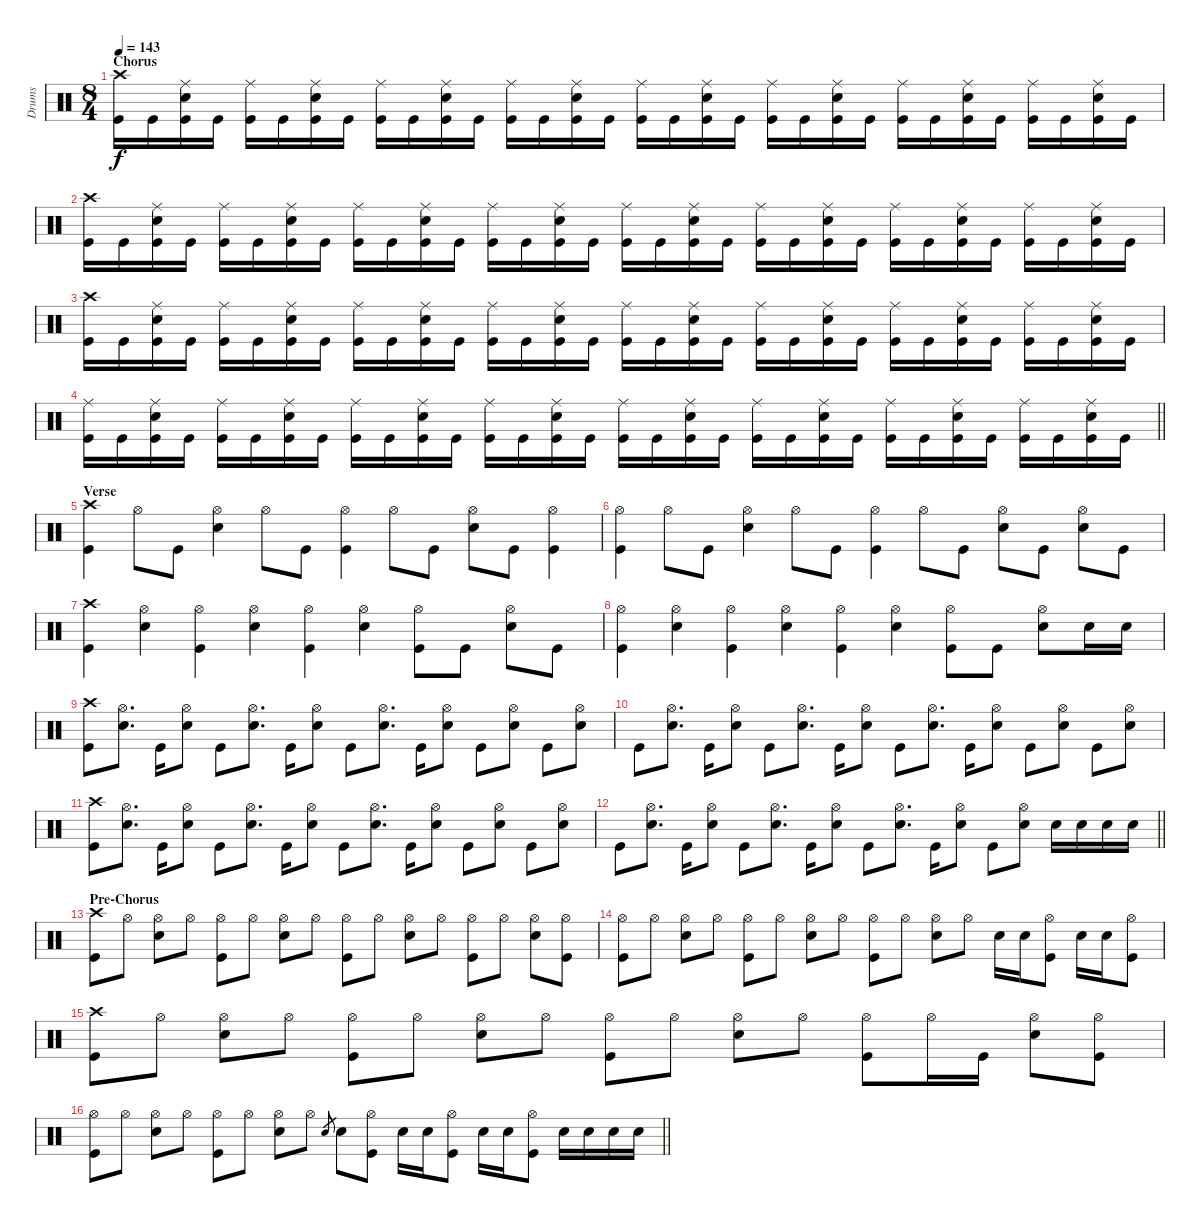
\track ("Drums" "Drums") {instrument percussion}
\staff {score}
\articulation defaults
\ts (8 4)
\section ("" "Chorus")
\tempo 143
\clef neutral
\ks c
("Crash high (hit)" "Kick (hit)").16{dy f} "Kick (hit)".16 ("Ride (middle)" "Snare (hit) 2" "Kick (hit)").16 "Kick (hit)".16 ("Ride (middle)" "Kick (hit)").16 "Kick (hit)".16 ("Ride (middle)" "Snare (hit) 2" "Kick (hit)").16 "Kick (hit)".16 ("Ride (middle)" "Kick (hit)").16 "Kick (hit)".16 ("Ride (middle)" "Snare (hit) 2" "Kick (hit)").16 "Kick (hit)".16 ("Ride (middle)" "Kick (hit)").16 "Kick (hit)".16 ("Ride (middle)" "Snare (hit) 2" "Kick (hit)").16 "Kick (hit)".16 ("Ride (middle)" "Kick (hit)").16 "Kick (hit)".16 ("Ride (middle)" "Snare (hit) 2" "Kick (hit)").16 "Kick (hit)".16 ("Ride (middle)" "Kick (hit)").16 "Kick (hit)".16 ("Ride (middle)" "Snare (hit) 2" "Kick (hit)").16 "Kick (hit)".16 ("Ride (middle)" "Kick (hit)").16 "Kick (hit)".16 ("Ride (middle)" "Snare (hit) 2" "Kick (hit)").16 "Kick (hit)".16 ("Ride (middle)" "Kick (hit)").16 "Kick (hit)".16 ("Ride (middle)" "Snare (hit) 2" "Kick (hit)").16 "Kick (hit)".16 |
("Crash high (hit)" "Kick (hit)").16 "Kick (hit)".16 ("Ride (middle)" "Snare (hit) 2" "Kick (hit)").16 "Kick (hit)".16 ("Ride (middle)" "Kick (hit)").16 "Kick (hit)".16 ("Ride (middle)" "Snare (hit) 2" "Kick (hit)").16 "Kick (hit)".16 ("Ride (middle)" "Kick (hit)").16 "Kick (hit)".16 ("Ride (middle)" "Snare (hit) 2" "Kick (hit)").16 "Kick (hit)".16 ("Ride (middle)" "Kick (hit)").16 "Kick (hit)".16 ("Ride (middle)" "Snare (hit) 2" "Kick (hit)").16 "Kick (hit)".16 ("Ride (middle)" "Kick (hit)").16 "Kick (hit)".16 ("Ride (middle)" "Snare (hit) 2" "Kick (hit)").16 "Kick (hit)".16 ("Ride (middle)" "Kick (hit)").16 "Kick (hit)".16 ("Ride (middle)" "Snare (hit) 2" "Kick (hit)").16 "Kick (hit)".16 ("Ride (middle)" "Kick (hit)").16 "Kick (hit)".16 ("Ride (middle)" "Snare (hit) 2" "Kick (hit)").16 "Kick (hit)".16 ("Ride (middle)" "Kick (hit)").16 "Kick (hit)".16 ("Ride (middle)" "Snare (hit) 2" "Kick (hit)").16 "Kick (hit)".16 |
("Crash high (hit)" "Kick (hit)").16 "Kick (hit)".16 ("Ride (middle)" "Snare (hit) 2" "Kick (hit)").16 "Kick (hit)".16 ("Ride (middle)" "Kick (hit)").16 "Kick (hit)".16 ("Ride (middle)" "Snare (hit) 2" "Kick (hit)").16 "Kick (hit)".16 ("Ride (middle)" "Kick (hit)").16 "Kick (hit)".16 ("Ride (middle)" "Snare (hit) 2" "Kick (hit)").16 "Kick (hit)".16 ("Ride (middle)" "Kick (hit)").16 "Kick (hit)".16 ("Ride (middle)" "Snare (hit) 2" "Kick (hit)").16 "Kick (hit)".16 ("Ride (middle)" "Kick (hit)").16 "Kick (hit)".16 ("Ride (middle)" "Snare (hit) 2" "Kick (hit)").16 "Kick (hit)".16 ("Ride (middle)" "Kick (hit)").16 "Kick (hit)".16 ("Ride (middle)" "Snare (hit) 2" "Kick (hit)").16 "Kick (hit)".16 ("Ride (middle)" "Kick (hit)").16 "Kick (hit)".16 ("Ride (middle)" "Snare (hit) 2" "Kick (hit)").16 "Kick (hit)".16 ("Ride (middle)" "Kick (hit)").16 "Kick (hit)".16 ("Ride (middle)" "Snare (hit) 2" "Kick (hit)").16 "Kick (hit)".16 |
\barLineRight lightlight
("Ride (middle)" "Kick (hit)").16 "Kick (hit)".16 ("Ride (middle)" "Snare (hit) 2" "Kick (hit)").16 "Kick (hit)".16 ("Ride (middle)" "Kick (hit)").16 "Kick (hit)".16 ("Ride (middle)" "Snare (hit) 2" "Kick (hit)").16 "Kick (hit)".16 ("Ride (middle)" "Kick (hit)").16 "Kick (hit)".16 ("Ride (middle)" "Snare (hit) 2" "Kick (hit)").16 "Kick (hit)".16 ("Ride (middle)" "Kick (hit)").16 "Kick (hit)".16 ("Ride (middle)" "Snare (hit) 2" "Kick (hit)").16 "Kick (hit)".16 ("Ride (middle)" "Kick (hit)").16 "Kick (hit)".16 ("Ride (middle)" "Snare (hit) 2" "Kick (hit)").16 "Kick (hit)".16 ("Ride (middle)" "Kick (hit)").16 "Kick (hit)".16 ("Ride (middle)" "Snare (hit) 2" "Kick (hit)").16 "Kick (hit)".16 ("Ride (middle)" "Kick (hit)").16 "Kick (hit)".16 ("Ride (middle)" "Snare (hit) 2" "Kick (hit)").16 "Kick (hit)".16 ("Ride (middle)" "Kick (hit)").16 "Kick (hit)".16 ("Ride (middle)" "Snare (hit) 2" "Kick (hit)").16 "Kick (hit)".16 |
\section ("" "Verse")
("Crash high (hit)" "Kick (hit)").4 "Hi-Hat (open)".8 "Kick (hit)".8 ("Hi-Hat (open)" "Snare (hit) 2").4 "Hi-Hat (open)".8 "Kick (hit)".8 ("Hi-Hat (open)" "Kick (hit)").4 "Hi-Hat (open)".8 "Kick (hit)".8 ("Hi-Hat (open)" "Snare (hit) 2").8 "Kick (hit)".8 ("Hi-Hat (open)" "Kick (hit)").4 |
("Hi-Hat (open)" "Kick (hit)").4 "Hi-Hat (open)".8 "Kick (hit)".8 ("Hi-Hat (open)" "Snare (hit) 2").4 "Hi-Hat (open)".8 "Kick (hit)".8 ("Hi-Hat (open)" "Kick (hit)").4 "Hi-Hat (open)".8 "Kick (hit)".8 ("Hi-Hat (open)" "Snare (hit) 2").8 "Kick (hit)".8 ("Hi-Hat (open)" "Snare (hit) 2").8 "Kick (hit)".8 |
("Crash high (hit)" "Kick (hit)").4 ("Hi-Hat (open)" "Snare (hit) 2").4 ("Hi-Hat (open)" "Kick (hit)").4 ("Hi-Hat (open)" "Snare (hit) 2").4 ("Hi-Hat (open)" "Kick (hit)").4 ("Hi-Hat (open)" "Snare (hit) 2").4 ("Hi-Hat (open)" "Kick (hit)").8 "Kick (hit)".8 ("Hi-Hat (open)" "Snare (hit) 2").8 "Kick (hit)".8 |
("Hi-Hat (open)" "Kick (hit)").4 ("Hi-Hat (open)" "Snare (hit) 2").4 ("Hi-Hat (open)" "Kick (hit)").4 ("Hi-Hat (open)" "Snare (hit) 2").4 ("Hi-Hat (open)" "Kick (hit)").4 ("Hi-Hat (open)" "Snare (hit) 2").4 ("Hi-Hat (open)" "Kick (hit)").8 "Kick (hit)".8 ("Hi-Hat (open)" "Snare (hit) 2").8 "Snare (hit) 2".16 "Snare (hit) 2".16 |
("Crash high (hit)" "Kick (hit)").8 ("Hi-Hat (open)" "Snare (hit) 2").8{d} "Kick (hit)".16 ("Hi-Hat (open)" "Snare (hit) 2").8 "Kick (hit)".8 ("Hi-Hat (open)" "Snare (hit) 2").8{d} "Kick (hit)".16 ("Hi-Hat (open)" "Snare (hit) 2").8 "Kick (hit)".8 ("Hi-Hat (open)" "Snare (hit) 2").8{d} "Kick (hit)".16 ("Hi-Hat (open)" "Snare (hit) 2").8 "Kick (hit)".8 ("Hi-Hat (open)" "Snare (hit) 2").8 "Kick (hit)".8 ("Hi-Hat (open)" "Snare (hit) 2").8 |
"Kick (hit)".8 ("Hi-Hat (open)" "Snare (hit) 2").8{d} "Kick (hit)".16 ("Hi-Hat (open)" "Snare (hit) 2").8 "Kick (hit)".8 ("Hi-Hat (open)" "Snare (hit) 2").8{d} "Kick (hit)".16 ("Hi-Hat (open)" "Snare (hit) 2").8 "Kick (hit)".8 ("Hi-Hat (open)" "Snare (hit) 2").8{d} "Kick (hit)".16 ("Hi-Hat (open)" "Snare (hit) 2").8 "Kick (hit)".8 ("Hi-Hat (open)" "Snare (hit) 2").8 "Kick (hit)".8 ("Hi-Hat (open)" "Snare (hit) 2").8 |
("Crash high (hit)" "Kick (hit)").8 ("Hi-Hat (open)" "Snare (hit) 2").8{d} "Kick (hit)".16 ("Hi-Hat (open)" "Snare (hit) 2").8 "Kick (hit)".8 ("Hi-Hat (open)" "Snare (hit) 2").8{d} "Kick (hit)".16 ("Hi-Hat (open)" "Snare (hit) 2").8 "Kick (hit)".8 ("Hi-Hat (open)" "Snare (hit) 2").8{d} "Kick (hit)".16 ("Hi-Hat (open)" "Snare (hit) 2").8 "Kick (hit)".8 ("Hi-Hat (open)" "Snare (hit) 2").8 "Kick (hit)".8 ("Hi-Hat (open)" "Snare (hit) 2").8 |
\barLineRight lightlight "Kick (hit)".8
("Hi-Hat (open)" "Snare (hit) 2").8{d} "Kick (hit)".16 ("Hi-Hat (open)" "Snare (hit) 2").8 "Kick (hit)".8 ("Hi-Hat (open)" "Snare (hit) 2").8{d} "Kick (hit)".16 ("Hi-Hat (open)" "Snare (hit) 2").8 "Kick (hit)".8 ("Hi-Hat (open)" "Snare (hit) 2").8{d} "Kick (hit)".16 ("Hi-Hat (open)" "Snare (hit) 2").8 "Kick (hit)".8 ("Hi-Hat (open)" "Snare (hit) 2").8 "Snare (hit) 2".16 "Snare (hit) 2".16 "Snare (hit) 2".16 "Snare (hit) 2".16 |
\section ("" "Pre-Chorus")
("Crash high (hit)" "Kick (hit)").8 "Hi-Hat (open)".8 ("Hi-Hat (open)" "Snare (hit) 2").8 "Hi-Hat (open)".8 ("Hi-Hat (open)" "Kick (hit)").8 "Hi-Hat (open)".8 ("Hi-Hat (open)" "Snare (hit) 2").8 "Hi-Hat (open)".8 ("Hi-Hat (open)" "Kick (hit)").8 "Hi-Hat (open)".8 ("Hi-Hat (open)" "Snare (hit) 2").8 "Hi-Hat (open)".8 ("Hi-Hat (open)" "Kick (hit)").8 "Hi-Hat (open)".8 ("Hi-Hat (open)" "Snare (hit) 2").8 ("Hi-Hat (open)" "Kick (hit)").8 |
("Hi-Hat (open)" "Kick (hit)").8 "Hi-Hat (open)".8 ("Hi-Hat (open)" "Snare (hit) 2").8 "Hi-Hat (open)".8 ("Hi-Hat (open)" "Kick (hit)").8 "Hi-Hat (open)".8 ("Hi-Hat (open)" "Snare (hit) 2").8 "Hi-Hat (open)".8 ("Hi-Hat (open)" "Kick (hit)").8 "Hi-Hat (open)".8 ("Hi-Hat (open)" "Snare (hit) 2").8 "Hi-Hat (open)".8 "Snare (hit) 2".16 "Snare (hit) 2".16 ("Hi-Hat (open)" "Kick (hit)").8 "Snare (hit) 2".16 "Snare (hit) 2".16 ("Hi-Hat (open)" "Kick (hit)").8 |
("Crash high (hit)" "Kick (hit)").8 "Hi-Hat (open)".8 ("Hi-Hat (open)" "Snare (hit) 2").8 "Hi-Hat (open)".8 ("Hi-Hat (open)" "Kick (hit)").8 "Hi-Hat (open)".8 ("Hi-Hat (open)" "Snare (hit) 2").8 "Hi-Hat (open)".8 ("Hi-Hat (open)" "Kick (hit)").8 "Hi-Hat (open)".8 ("Hi-Hat (open)" "Snare (hit) 2").8 "Hi-Hat (open)".8 ("Hi-Hat (open)" "Kick (hit)").8 "Hi-Hat (open)".16 "Kick (hit)".16 ("Hi-Hat (open)" "Snare (hit) 2").8 ("Hi-Hat (open)" "Kick (hit)").8 |
\barLineRight lightlight
("Hi-Hat (open)" "Kick (hit)").8 "Hi-Hat (open)".8 ("Hi-Hat (open)" "Snare (hit) 2").8 "Hi-Hat (open)".8 ("Hi-Hat (open)" "Kick (hit)").8 "Hi-Hat (open)".8 ("Hi-Hat (open)" "Snare (hit) 2").8 "Hi-Hat (open)".8 "Snare (hit) 2".8{gr} "Snare (hit) 2".8 ("Hi-Hat (open)" "Kick (hit)").8 "Snare (hit) 2".16 "Snare (hit) 2".16 ("Hi-Hat (open)" "Kick (hit)").8 "Snare (hit) 2".16 "Snare (hit) 2".16 ("Hi-Hat (open)" "Kick (hit)").8 "Snare (hit) 2".16 "Snare (hit) 2".16 "Snare (hit) 2".16 "Snare (hit) 2".16
